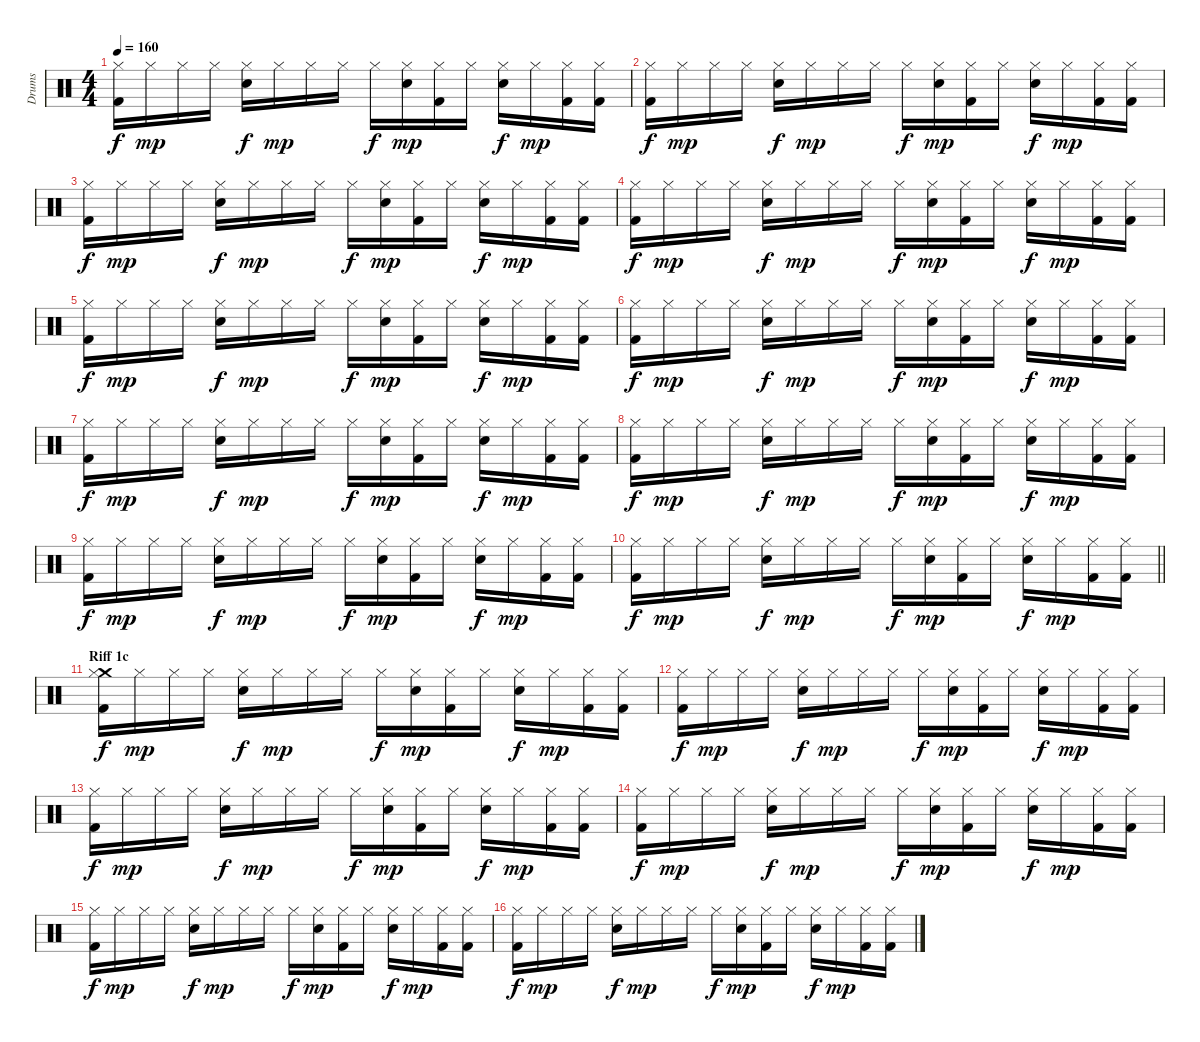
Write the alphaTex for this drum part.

\track ("Drums" "Drums") {instrument percussion}
\staff {score}
\articulation defaults
\ts (4 4)
\tempo 160
\clef neutral
\ks c
("Kick (hit) 2" "Hi-Hat (closed)").16{dy f} "Hi-Hat (closed)".16{dy mp} "Hi-Hat (closed)".16 "Hi-Hat (closed)".16 ("Snare (hit) 2" "Hi-Hat (closed)").16{dy f} "Hi-Hat (closed)".16{dy mp} "Hi-Hat (closed)".16 "Hi-Hat (closed)".16 "Hi-Hat (closed)".16{dy f} ("Snare (hit) 2" "Hi-Hat (closed)").16{dy mp} ("Kick (hit) 2" "Hi-Hat (closed)").16 "Hi-Hat (closed)".16 ("Snare (hit) 2" "Hi-Hat (closed)").16{dy f} "Hi-Hat (closed)".16{dy mp} ("Kick (hit) 2" "Hi-Hat (closed)").16 ("Kick (hit) 2" "Hi-Hat (closed)").16 |
("Kick (hit) 2" "Hi-Hat (closed)").16{dy f} "Hi-Hat (closed)".16{dy mp} "Hi-Hat (closed)".16 "Hi-Hat (closed)".16 ("Snare (hit) 2" "Hi-Hat (closed)").16{dy f} "Hi-Hat (closed)".16{dy mp} "Hi-Hat (closed)".16 "Hi-Hat (closed)".16 "Hi-Hat (closed)".16{dy f} ("Snare (hit) 2" "Hi-Hat (closed)").16{dy mp} ("Kick (hit) 2" "Hi-Hat (closed)").16 "Hi-Hat (closed)".16 ("Snare (hit) 2" "Hi-Hat (closed)").16{dy f} "Hi-Hat (closed)".16{dy mp} ("Kick (hit) 2" "Hi-Hat (closed)").16 ("Kick (hit) 2" "Hi-Hat (closed)").16 |
("Kick (hit) 2" "Hi-Hat (closed)").16{dy f} "Hi-Hat (closed)".16{dy mp} "Hi-Hat (closed)".16 "Hi-Hat (closed)".16 ("Snare (hit) 2" "Hi-Hat (closed)").16{dy f} "Hi-Hat (closed)".16{dy mp} "Hi-Hat (closed)".16 "Hi-Hat (closed)".16 "Hi-Hat (closed)".16{dy f} ("Snare (hit) 2" "Hi-Hat (closed)").16{dy mp} ("Kick (hit) 2" "Hi-Hat (closed)").16 "Hi-Hat (closed)".16 ("Snare (hit) 2" "Hi-Hat (closed)").16{dy f} "Hi-Hat (closed)".16{dy mp} ("Kick (hit) 2" "Hi-Hat (closed)").16 ("Kick (hit) 2" "Hi-Hat (closed)").16 |
("Kick (hit) 2" "Hi-Hat (closed)").16{dy f} "Hi-Hat (closed)".16{dy mp} "Hi-Hat (closed)".16 "Hi-Hat (closed)".16 ("Snare (hit) 2" "Hi-Hat (closed)").16{dy f} "Hi-Hat (closed)".16{dy mp} "Hi-Hat (closed)".16 "Hi-Hat (closed)".16 "Hi-Hat (closed)".16{dy f} ("Snare (hit) 2" "Hi-Hat (closed)").16{dy mp} ("Kick (hit) 2" "Hi-Hat (closed)").16 "Hi-Hat (closed)".16 ("Snare (hit) 2" "Hi-Hat (closed)").16{dy f} "Hi-Hat (closed)".16{dy mp} ("Kick (hit) 2" "Hi-Hat (closed)").16 ("Kick (hit) 2" "Hi-Hat (closed)").16 |
("Kick (hit) 2" "Hi-Hat (closed)").16{dy f} "Hi-Hat (closed)".16{dy mp} "Hi-Hat (closed)".16 "Hi-Hat (closed)".16 ("Snare (hit) 2" "Hi-Hat (closed)").16{dy f} "Hi-Hat (closed)".16{dy mp} "Hi-Hat (closed)".16 "Hi-Hat (closed)".16 "Hi-Hat (closed)".16{dy f} ("Snare (hit) 2" "Hi-Hat (closed)").16{dy mp} ("Kick (hit) 2" "Hi-Hat (closed)").16 "Hi-Hat (closed)".16 ("Snare (hit) 2" "Hi-Hat (closed)").16{dy f} "Hi-Hat (closed)".16{dy mp} ("Kick (hit) 2" "Hi-Hat (closed)").16 ("Kick (hit) 2" "Hi-Hat (closed)").16 |
("Kick (hit) 2" "Hi-Hat (closed)").16{dy f} "Hi-Hat (closed)".16{dy mp} "Hi-Hat (closed)".16 "Hi-Hat (closed)".16 ("Snare (hit) 2" "Hi-Hat (closed)").16{dy f} "Hi-Hat (closed)".16{dy mp} "Hi-Hat (closed)".16 "Hi-Hat (closed)".16 "Hi-Hat (closed)".16{dy f} ("Snare (hit) 2" "Hi-Hat (closed)").16{dy mp} ("Kick (hit) 2" "Hi-Hat (closed)").16 "Hi-Hat (closed)".16 ("Snare (hit) 2" "Hi-Hat (closed)").16{dy f} "Hi-Hat (closed)".16{dy mp} ("Kick (hit) 2" "Hi-Hat (closed)").16 ("Kick (hit) 2" "Hi-Hat (closed)").16 |
("Kick (hit) 2" "Hi-Hat (closed)").16{dy f} "Hi-Hat (closed)".16{dy mp} "Hi-Hat (closed)".16 "Hi-Hat (closed)".16 ("Snare (hit) 2" "Hi-Hat (closed)").16{dy f} "Hi-Hat (closed)".16{dy mp} "Hi-Hat (closed)".16 "Hi-Hat (closed)".16 "Hi-Hat (closed)".16{dy f} ("Snare (hit) 2" "Hi-Hat (closed)").16{dy mp} ("Kick (hit) 2" "Hi-Hat (closed)").16 "Hi-Hat (closed)".16 ("Snare (hit) 2" "Hi-Hat (closed)").16{dy f} "Hi-Hat (closed)".16{dy mp} ("Kick (hit) 2" "Hi-Hat (closed)").16 ("Kick (hit) 2" "Hi-Hat (closed)").16 |
("Kick (hit) 2" "Hi-Hat (closed)").16{dy f} "Hi-Hat (closed)".16{dy mp} "Hi-Hat (closed)".16 "Hi-Hat (closed)".16 ("Snare (hit) 2" "Hi-Hat (closed)").16{dy f} "Hi-Hat (closed)".16{dy mp} "Hi-Hat (closed)".16 "Hi-Hat (closed)".16 "Hi-Hat (closed)".16{dy f} ("Snare (hit) 2" "Hi-Hat (closed)").16{dy mp} ("Kick (hit) 2" "Hi-Hat (closed)").16 "Hi-Hat (closed)".16 ("Snare (hit) 2" "Hi-Hat (closed)").16{dy f} "Hi-Hat (closed)".16{dy mp} ("Kick (hit) 2" "Hi-Hat (closed)").16 ("Kick (hit) 2" "Hi-Hat (closed)").16 |
("Kick (hit) 2" "Hi-Hat (closed)").16{dy f} "Hi-Hat (closed)".16{dy mp} "Hi-Hat (closed)".16 "Hi-Hat (closed)".16 ("Snare (hit) 2" "Hi-Hat (closed)").16{dy f} "Hi-Hat (closed)".16{dy mp} "Hi-Hat (closed)".16 "Hi-Hat (closed)".16 "Hi-Hat (closed)".16{dy f} ("Snare (hit) 2" "Hi-Hat (closed)").16{dy mp} ("Kick (hit) 2" "Hi-Hat (closed)").16 "Hi-Hat (closed)".16 ("Snare (hit) 2" "Hi-Hat (closed)").16{dy f} "Hi-Hat (closed)".16{dy mp} ("Kick (hit) 2" "Hi-Hat (closed)").16 ("Kick (hit) 2" "Hi-Hat (closed)").16 |
\barLineRight lightlight
("Kick (hit) 2" "Hi-Hat (closed)").16{dy f} "Hi-Hat (closed)".16{dy mp} "Hi-Hat (closed)".16 "Hi-Hat (closed)".16 ("Snare (hit) 2" "Hi-Hat (closed)").16{dy f} "Hi-Hat (closed)".16{dy mp} "Hi-Hat (closed)".16 "Hi-Hat (closed)".16 "Hi-Hat (closed)".16{dy f} ("Snare (hit) 2" "Hi-Hat (closed)").16{dy mp} ("Kick (hit) 2" "Hi-Hat (closed)").16 "Hi-Hat (closed)".16 ("Snare (hit) 2" "Hi-Hat (closed)").16{dy f} "Hi-Hat (closed)".16{dy mp} ("Kick (hit) 2" "Hi-Hat (closed)").16 ("Kick (hit) 2" "Hi-Hat (closed)").16 |
\section ("" "Riff 1c")
("Kick (hit) 2" "Crash medium (hit)" "Hi-Hat (closed)").16{dy f} "Hi-Hat (closed)".16{dy mp} "Hi-Hat (closed)".16 "Hi-Hat (closed)".16 ("Snare (hit) 2" "Hi-Hat (closed)").16{dy f} "Hi-Hat (closed)".16{dy mp} "Hi-Hat (closed)".16 "Hi-Hat (closed)".16 "Hi-Hat (closed)".16{dy f} ("Snare (hit) 2" "Hi-Hat (closed)").16{dy mp} ("Kick (hit) 2" "Hi-Hat (closed)").16 "Hi-Hat (closed)".16 ("Snare (hit) 2" "Hi-Hat (closed)").16{dy f} "Hi-Hat (closed)".16{dy mp} ("Kick (hit) 2" "Hi-Hat (closed)").16 ("Kick (hit) 2" "Hi-Hat (closed)").16 |
("Kick (hit) 2" "Hi-Hat (closed)").16{dy f} "Hi-Hat (closed)".16{dy mp} "Hi-Hat (closed)".16 "Hi-Hat (closed)".16 ("Snare (hit) 2" "Hi-Hat (closed)").16{dy f} "Hi-Hat (closed)".16{dy mp} "Hi-Hat (closed)".16 "Hi-Hat (closed)".16 "Hi-Hat (closed)".16{dy f} ("Snare (hit) 2" "Hi-Hat (closed)").16{dy mp} ("Kick (hit) 2" "Hi-Hat (closed)").16 "Hi-Hat (closed)".16 ("Snare (hit) 2" "Hi-Hat (closed)").16{dy f} "Hi-Hat (closed)".16{dy mp} ("Kick (hit) 2" "Hi-Hat (closed)").16 ("Kick (hit) 2" "Hi-Hat (closed)").16 |
("Kick (hit) 2" "Hi-Hat (closed)").16{dy f} "Hi-Hat (closed)".16{dy mp} "Hi-Hat (closed)".16 "Hi-Hat (closed)".16 ("Snare (hit) 2" "Hi-Hat (closed)").16{dy f} "Hi-Hat (closed)".16{dy mp} "Hi-Hat (closed)".16 "Hi-Hat (closed)".16 "Hi-Hat (closed)".16{dy f} ("Snare (hit) 2" "Hi-Hat (closed)").16{dy mp} ("Kick (hit) 2" "Hi-Hat (closed)").16 "Hi-Hat (closed)".16 ("Snare (hit) 2" "Hi-Hat (closed)").16{dy f} "Hi-Hat (closed)".16{dy mp} ("Kick (hit) 2" "Hi-Hat (closed)").16 ("Kick (hit) 2" "Hi-Hat (closed)").16 |
("Kick (hit) 2" "Hi-Hat (closed)").16{dy f} "Hi-Hat (closed)".16{dy mp} "Hi-Hat (closed)".16 "Hi-Hat (closed)".16 ("Snare (hit) 2" "Hi-Hat (closed)").16{dy f} "Hi-Hat (closed)".16{dy mp} "Hi-Hat (closed)".16 "Hi-Hat (closed)".16 "Hi-Hat (closed)".16{dy f} ("Snare (hit) 2" "Hi-Hat (closed)").16{dy mp} ("Kick (hit) 2" "Hi-Hat (closed)").16 "Hi-Hat (closed)".16 ("Snare (hit) 2" "Hi-Hat (closed)").16{dy f} "Hi-Hat (closed)".16{dy mp} ("Kick (hit) 2" "Hi-Hat (closed)").16 ("Kick (hit) 2" "Hi-Hat (closed)").16 |
("Kick (hit) 2" "Hi-Hat (closed)").16{dy f} "Hi-Hat (closed)".16{dy mp} "Hi-Hat (closed)".16 "Hi-Hat (closed)".16 ("Snare (hit) 2" "Hi-Hat (closed)").16{dy f} "Hi-Hat (closed)".16{dy mp} "Hi-Hat (closed)".16 "Hi-Hat (closed)".16 "Hi-Hat (closed)".16{dy f} ("Snare (hit) 2" "Hi-Hat (closed)").16{dy mp} ("Kick (hit) 2" "Hi-Hat (closed)").16 "Hi-Hat (closed)".16 ("Snare (hit) 2" "Hi-Hat (closed)").16{dy f} "Hi-Hat (closed)".16{dy mp} ("Kick (hit) 2" "Hi-Hat (closed)").16 ("Kick (hit) 2" "Hi-Hat (closed)").16 |
("Kick (hit) 2" "Hi-Hat (closed)").16{dy f} "Hi-Hat (closed)".16{dy mp} "Hi-Hat (closed)".16 "Hi-Hat (closed)".16 ("Snare (hit) 2" "Hi-Hat (closed)").16{dy f} "Hi-Hat (closed)".16{dy mp} "Hi-Hat (closed)".16 "Hi-Hat (closed)".16 "Hi-Hat (closed)".16{dy f} ("Snare (hit) 2" "Hi-Hat (closed)").16{dy mp} ("Kick (hit) 2" "Hi-Hat (closed)").16 "Hi-Hat (closed)".16 ("Snare (hit) 2" "Hi-Hat (closed)").16{dy f} "Hi-Hat (closed)".16{dy mp} ("Kick (hit) 2" "Hi-Hat (closed)").16 ("Kick (hit) 2" "Hi-Hat (closed)").16
